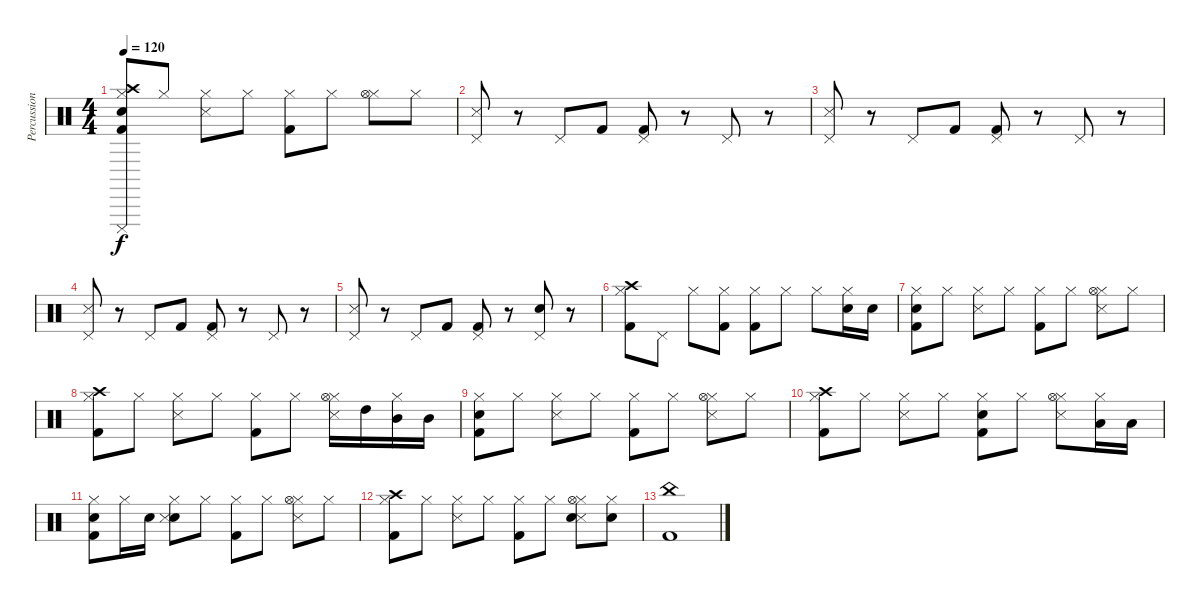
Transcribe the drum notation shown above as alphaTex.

\track ("Percussion" "Percussion") {instrument percussion}
\staff {score}
\articulation defaults
\ts (4 4)
\tempo 120
\clef neutral
\ks c
("Snare (hit) 2" "Crash high (hit)" "Hi-Hat (closed)" "Kick (hit) 2" "Cuica (mute)").8{dy f} "Hi-Hat (closed)".8 ("Hi-Hat (closed)" "Snare (side stick) 3").8 "Hi-Hat (closed)".8 ("Hi-Hat (closed)" "Kick (hit) 2").8 "Hi-Hat (closed)".8 ("Hi-Hat (closed)" "Hi-Hat (open)").8 "Hi-Hat (closed)".8 |
("Pedal Hi-Hat (hit)" "Snare (side stick) 3").8 r.8 "Pedal Hi-Hat (hit)".8 "Kick (hit) 2".8 ("Pedal Hi-Hat (hit)" "Kick (hit) 2").8 r.8 "Pedal Hi-Hat (hit)".8 r.8 |
("Pedal Hi-Hat (hit)" "Snare (side stick) 3").8 r.8 "Pedal Hi-Hat (hit)".8 "Kick (hit) 2".8 ("Pedal Hi-Hat (hit)" "Kick (hit) 2").8 r.8 "Pedal Hi-Hat (hit)".8 r.8 |
("Pedal Hi-Hat (hit)" "Snare (side stick) 3").8 r.8 "Pedal Hi-Hat (hit)".8 "Kick (hit) 2".8 ("Pedal Hi-Hat (hit)" "Kick (hit) 2").8 r.8 "Pedal Hi-Hat (hit)".8 r.8 |
("Pedal Hi-Hat (hit)" "Snare (side stick) 3").8 r.8 "Pedal Hi-Hat (hit)".8 "Kick (hit) 2".8 ("Pedal Hi-Hat (hit)" "Kick (hit) 2").8 r.8 ("Snare (hit) 2" "Pedal Hi-Hat (hit)").8 r.8 |
("Crash high (hit)" "Hi-Hat (closed)" "Kick (hit) 2").8 "Pedal Hi-Hat (hit)".8 "Hi-Hat (closed)".8 ("Hi-Hat (closed)" "Kick (hit) 2").8 ("Hi-Hat (closed)" "Kick (hit) 2").8 "Hi-Hat (closed)".8 "Hi-Hat (closed)".8 ("Snare (hit) 2" "Hi-Hat (closed)").16 "Snare (hit) 2".16 |
("Snare (hit) 2" "Hi-Hat (closed)" "Kick (hit) 2").8 "Hi-Hat (closed)".8 ("Hi-Hat (closed)" "Snare (side stick) 3").8 "Hi-Hat (closed)".8 ("Hi-Hat (closed)" "Kick (hit) 2").8 "Hi-Hat (closed)".8 ("Snare (side stick) 3" "Hi-Hat (closed)" "Hi-Hat (open)").8 "Hi-Hat (closed)".8 |
("Crash high (hit)" "Hi-Hat (closed)" "Kick (hit) 2").8 "Hi-Hat (closed)".8 ("Hi-Hat (closed)" "Snare (side stick) 3").8 "Hi-Hat (closed)".8 ("Hi-Hat (closed)" "Kick (hit) 2").8 "Hi-Hat (closed)".8 ("Snare (side stick) 3" "Hi-Hat (closed)" "Hi-Hat (open)").16 "High Tom (hit)".16 ("Mid Tom (hit)" "Hi-Hat (closed)").16 "Mid Tom (hit)".16 |
("Snare (hit) 2" "Hi-Hat (closed)" "Kick (hit) 2").8 "Hi-Hat (closed)".8 ("Hi-Hat (closed)" "Snare (side stick) 3").8 "Hi-Hat (closed)".8 ("Hi-Hat (closed)" "Kick (hit) 2").8 "Hi-Hat (closed)".8 ("Snare (side stick) 3" "Hi-Hat (closed)" "Hi-Hat (open)").8 "Hi-Hat (closed)".8 |
("Crash high (hit)" "Hi-Hat (closed)" "Kick (hit) 2").8 "Hi-Hat (closed)".8 ("Hi-Hat (closed)" "Snare (side stick) 3").8 "Hi-Hat (closed)".8 ("Snare (hit) 2" "Hi-Hat (closed)" "Kick (hit) 2").8 "Hi-Hat (closed)".8 ("Snare (side stick) 3" "Hi-Hat (closed)" "Hi-Hat (open)").8 ("Low Tom (hit)" "Hi-Hat (closed)").16 "Low Tom (hit)".16 |
("Snare (hit) 2" "Hi-Hat (closed)" "Kick (hit) 2").8 "Hi-Hat (closed)".16 "Snare (hit) 2".16 ("Snare (hit) 2" "Hi-Hat (closed)" "Snare (side stick) 3").8 "Hi-Hat (closed)".8 ("Hi-Hat (closed)" "Kick (hit) 2").8 "Hi-Hat (closed)".8 ("Snare (side stick) 3" "Hi-Hat (closed)" "Hi-Hat (open)").8 "Hi-Hat (closed)".8 |
("Crash high (hit)" "Hi-Hat (closed)" "Kick (hit) 2").8 "Hi-Hat (closed)".8 ("Hi-Hat (closed)" "Snare (side stick) 3").8 "Hi-Hat (closed)".8 ("Hi-Hat (closed)" "Kick (hit) 2").8 "Hi-Hat (closed)".8 ("Snare (side stick) 3" "Hi-Hat (closed)" "Hi-Hat (open)" "Snare (hit) 2").8 ("Hi-Hat (closed)" "Snare (hit) 2").8 |
("China (hit)" "Kick (hit) 2").1
